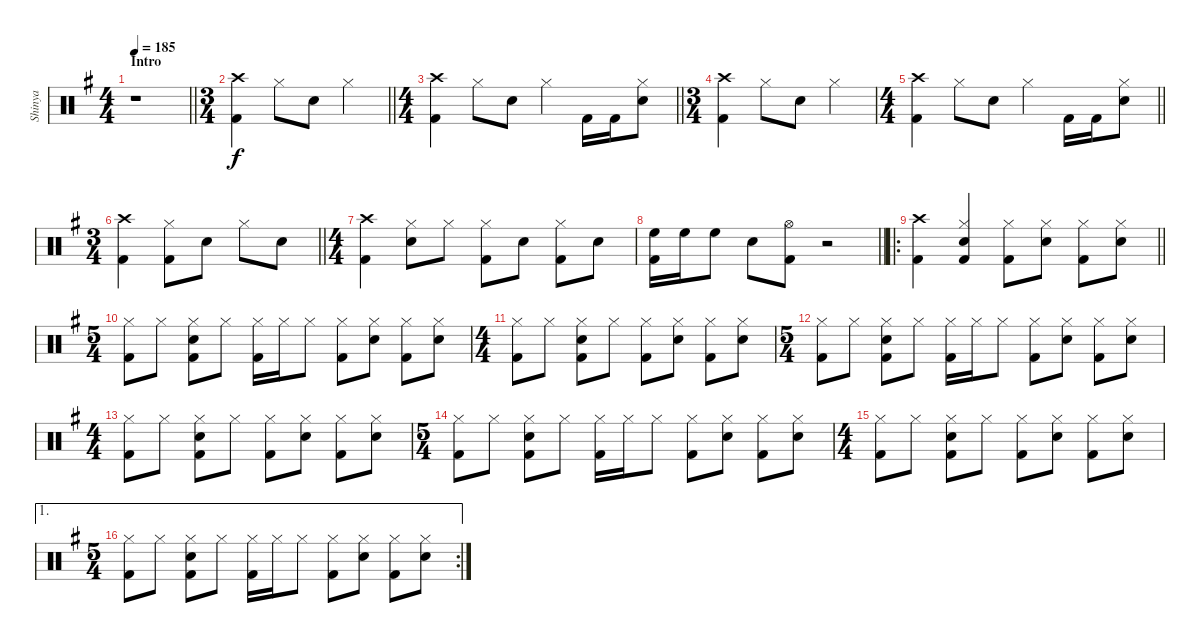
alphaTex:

\track ("Shinya" "Shinya") {instrument percussion}
\staff {score}
\articulation defaults
\ts (4 4)
\section ("" "Intro")
\tempo 185
\clef neutral
\barLineRight lightlight
\ks g
r.1{dy f} |
\ts (3 4)
\barLineRight lightlight
("Crash high (hit)" "Kick (hit) 2").4 "Hi-Hat (closed)".8 "Snare (hit) 2".8 "Hi-Hat (closed)".4 |
\ts (4 4)
\barLineRight lightlight
("Crash high (hit)" "Kick (hit) 2").4 "Hi-Hat (closed)".8 "Snare (hit) 2".8 "Hi-Hat (closed)".4 "Kick (hit) 2".16 "Kick (hit) 2".16 ("Hi-Hat (closed)" "Snare (hit) 2").8 |
\ts (3 4)
("Crash high (hit)" "Kick (hit) 2").4 "Hi-Hat (closed)".8 "Snare (hit) 2".8 "Hi-Hat (closed)".4 |
\ts (4 4)
\barLineRight lightlight
("Crash high (hit)" "Kick (hit) 2").4 "Hi-Hat (closed)".8 "Snare (hit) 2".8 "Hi-Hat (closed)".4 "Kick (hit) 2".16 "Kick (hit) 2".16 ("Hi-Hat (closed)" "Snare (hit) 2").8 |
\ts (3 4)
\barLineRight lightlight
("Crash high (hit)" "Kick (hit) 2").4 ("Hi-Hat (closed)" "Kick (hit) 2").8 "Snare (hit) 2".8 "Hi-Hat (closed)".8 "Snare (hit) 2".8 |
\ts (4 4)
("Crash high (hit)" "Kick (hit) 2").4 ("Hi-Hat (closed)" "Snare (hit) 2").8 "Hi-Hat (closed)".8 ("Hi-Hat (closed)" "Kick (hit) 2").8 "Snare (hit) 2".8 ("Hi-Hat (closed)" "Kick (hit) 2").8 "Snare (hit) 2".8 |
\barLineRight lightlight
("High Floor Tom (hit)" "Kick (hit) 2").16 "High Floor Tom (hit)".16 "High Floor Tom (hit)".8 "Snare (hit) 2".8 ("Hi-Hat (open)" "Kick (hit) 2").8 r.2 |
\ro
\barLineRight lightlight
("Crash high (hit)" "Kick (hit) 2").4 ("Hi-Hat (closed)" "Snare (hit) 2" "Kick (hit) 2").4 ("Hi-Hat (closed)" "Kick (hit) 2").8 ("Hi-Hat (closed)" "Snare (hit) 2").8 ("Hi-Hat (closed)" "Kick (hit) 2").8 ("Hi-Hat (closed)" "Snare (hit) 2").8 |
\ts (5 4)
("Hi-Hat (closed)" "Kick (hit) 2").8 "Hi-Hat (closed)".8 ("Hi-Hat (closed)" "Snare (hit) 2" "Kick (hit) 2").8 "Hi-Hat (closed)".8 ("Hi-Hat (closed)" "Kick (hit) 2").16 "Hi-Hat (closed)".16 "Hi-Hat (closed)".8 ("Hi-Hat (closed)" "Kick (hit) 2").8 ("Hi-Hat (closed)" "Snare (hit) 2").8 ("Hi-Hat (closed)" "Kick (hit) 2").8 ("Hi-Hat (closed)" "Snare (hit) 2").8 |
\ts (4 4)
("Hi-Hat (closed)" "Kick (hit) 2").8 "Hi-Hat (closed)".8 ("Hi-Hat (closed)" "Snare (hit) 2" "Kick (hit) 2").8 "Hi-Hat (closed)".8 ("Hi-Hat (closed)" "Kick (hit) 2").8 ("Hi-Hat (closed)" "Snare (hit) 2").8 ("Hi-Hat (closed)" "Kick (hit) 2").8 ("Hi-Hat (closed)" "Snare (hit) 2").8 |
\ts (5 4)
("Hi-Hat (closed)" "Kick (hit) 2").8 "Hi-Hat (closed)".8 ("Hi-Hat (closed)" "Snare (hit) 2" "Kick (hit) 2").8 "Hi-Hat (closed)".8 ("Hi-Hat (closed)" "Kick (hit) 2").16 "Hi-Hat (closed)".16 "Hi-Hat (closed)".8 ("Hi-Hat (closed)" "Kick (hit) 2").8 ("Hi-Hat (closed)" "Snare (hit) 2").8 ("Hi-Hat (closed)" "Kick (hit) 2").8 ("Hi-Hat (closed)" "Snare (hit) 2").8 |
\ts (4 4)
("Hi-Hat (closed)" "Kick (hit) 2").8 "Hi-Hat (closed)".8 ("Hi-Hat (closed)" "Snare (hit) 2" "Kick (hit) 2").8 "Hi-Hat (closed)".8 ("Hi-Hat (closed)" "Kick (hit) 2").8 ("Hi-Hat (closed)" "Snare (hit) 2").8 ("Hi-Hat (closed)" "Kick (hit) 2").8 ("Hi-Hat (closed)" "Snare (hit) 2").8 |
\ts (5 4)
("Hi-Hat (closed)" "Kick (hit) 2").8 "Hi-Hat (closed)".8 ("Hi-Hat (closed)" "Snare (hit) 2" "Kick (hit) 2").8 "Hi-Hat (closed)".8 ("Hi-Hat (closed)" "Kick (hit) 2").16 "Hi-Hat (closed)".16 "Hi-Hat (closed)".8 ("Hi-Hat (closed)" "Kick (hit) 2").8 ("Hi-Hat (closed)" "Snare (hit) 2").8 ("Hi-Hat (closed)" "Kick (hit) 2").8 ("Hi-Hat (closed)" "Snare (hit) 2").8 |
\ts (4 4)
("Hi-Hat (closed)" "Kick (hit) 2").8 "Hi-Hat (closed)".8 ("Hi-Hat (closed)" "Snare (hit) 2" "Kick (hit) 2").8 "Hi-Hat (closed)".8 ("Hi-Hat (closed)" "Kick (hit) 2").8 ("Hi-Hat (closed)" "Snare (hit) 2").8 ("Hi-Hat (closed)" "Kick (hit) 2").8 ("Hi-Hat (closed)" "Snare (hit) 2").8 |
\ae 1
\rc 2
\ts (5 4)
("Hi-Hat (closed)" "Kick (hit) 2").8 "Hi-Hat (closed)".8 ("Hi-Hat (closed)" "Snare (hit) 2" "Kick (hit) 2").8 "Hi-Hat (closed)".8 ("Hi-Hat (closed)" "Kick (hit) 2").16 "Hi-Hat (closed)".16 "Hi-Hat (closed)".8 ("Hi-Hat (closed)" "Kick (hit) 2").8 ("Hi-Hat (closed)" "Snare (hit) 2").8 ("Hi-Hat (closed)" "Kick (hit) 2").8 ("Hi-Hat (closed)" "Snare (hit) 2").8
